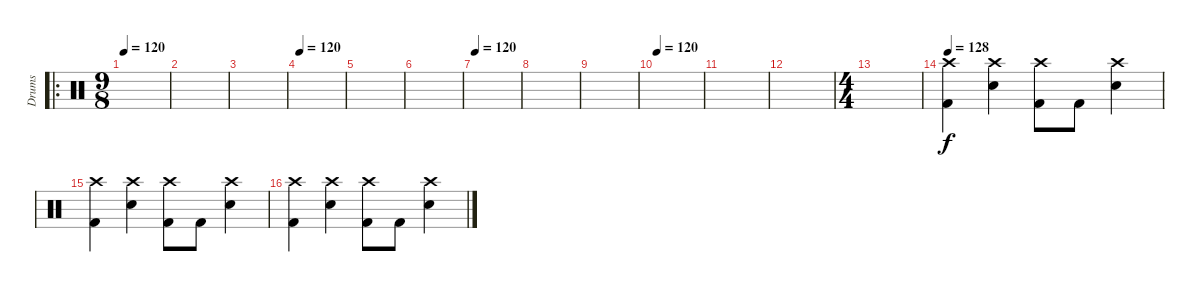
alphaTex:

\track ("Drums" "Drums") {instrument percussion}
\staff {score}
\articulation defaults
\ro
\ts (9 8)
\tempo 120
\clef neutral
\ks c
|
|
|
\tempo 120
|
|
|
\tempo 120
|
|
|
\tempo 120
|
|
|
\ts (4 4)
|
\tempo 128
("Crash high (hit)" "Kick (hit) 2").4 ("Crash high (hit)" "Snare (hit) 2").4 ("Crash high (hit)" "Kick (hit) 2").8 "Kick (hit) 2".8 ("Crash high (hit)" "Snare (hit) 2").4 |
("Crash high (hit)" "Kick (hit) 2").4 ("Crash high (hit)" "Snare (hit) 2").4 ("Crash high (hit)" "Kick (hit) 2").8 "Kick (hit) 2".8 ("Crash high (hit)" "Snare (hit) 2").4 |
("Crash high (hit)" "Kick (hit) 2").4 ("Crash high (hit)" "Snare (hit) 2").4 ("Crash high (hit)" "Kick (hit) 2").8 "Kick (hit) 2".8 ("Crash high (hit)" "Snare (hit) 2").4
